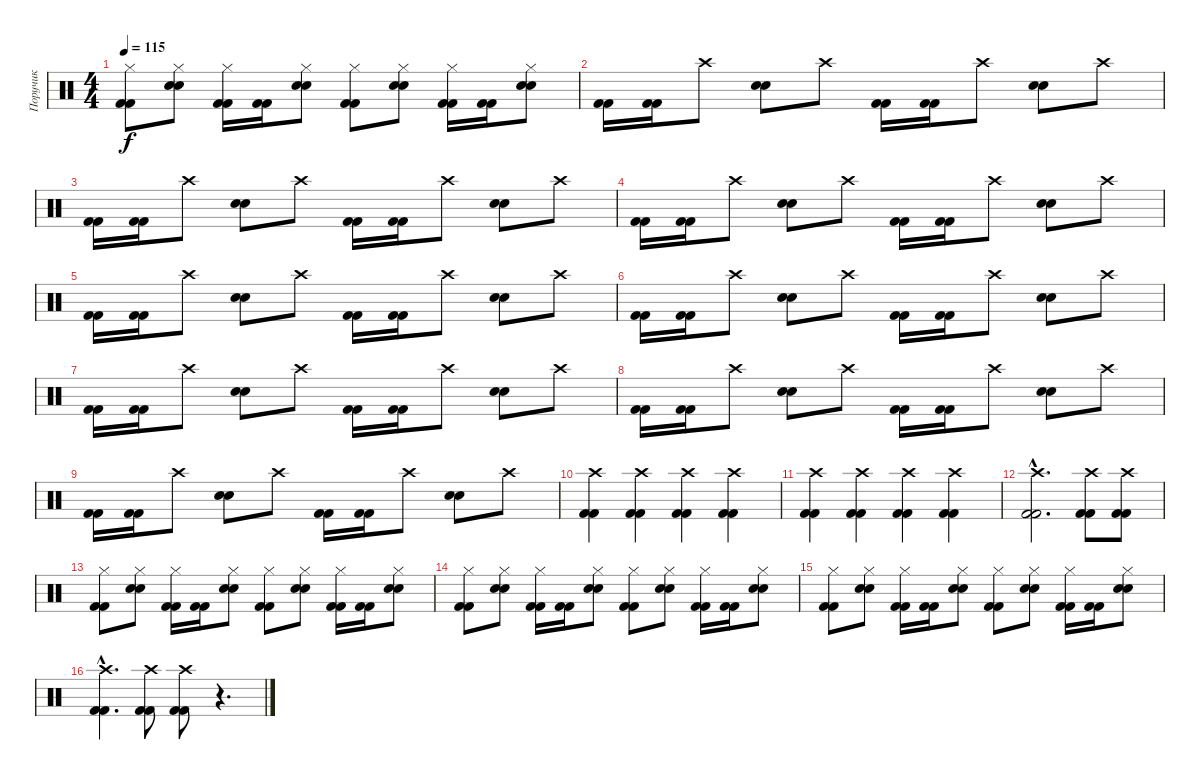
\track ("Поручик" "Поручик") {instrument percussion}
\staff {score}
\articulation defaults
\ts (4 4)
\tempo 115
\clef neutral
\ks c
("Kick (hit) 2" "Hi-Hat (closed)" "Kick (hit) 2").8{dy f} ("Snare (hit) 2" "Hi-Hat (closed)" "Snare (hit) 2").8 ("Kick (hit) 2" "Hi-Hat (closed)" "Kick (hit) 2").16 ("Kick (hit) 2" "Kick (hit) 2").16 ("Snare (hit) 2" "Hi-Hat (closed)" "Snare (hit) 2").8 ("Kick (hit) 2" "Hi-Hat (closed)" "Kick (hit) 2").8 ("Snare (hit) 2" "Hi-Hat (closed)" "Snare (hit) 2").8 ("Kick (hit) 2" "Hi-Hat (closed)" "Kick (hit) 2").16 ("Kick (hit) 2" "Kick (hit) 2").16 ("Snare (hit) 2" "Hi-Hat (closed)" "Snare (hit) 2").8 |
("Kick (hit) 2" "Kick (hit) 2").16 ("Kick (hit) 2" "Kick (hit) 2").16 "Crash high (hit)".8 ("Snare (hit) 2" "Snare (hit) 2").8 "Crash high (hit)".8 ("Kick (hit) 2" "Kick (hit) 2").16 ("Kick (hit) 2" "Kick (hit) 2").16 "Crash high (hit)".8 ("Snare (hit) 2" "Snare (hit) 2").8 "Crash high (hit)".8 |
("Kick (hit) 2" "Kick (hit) 2").16 ("Kick (hit) 2" "Kick (hit) 2").16 "Crash high (hit)".8 ("Snare (hit) 2" "Snare (hit) 2").8 "Crash high (hit)".8 ("Kick (hit) 2" "Kick (hit) 2").16 ("Kick (hit) 2" "Kick (hit) 2").16 "Crash high (hit)".8 ("Snare (hit) 2" "Snare (hit) 2").8 "Crash high (hit)".8 |
("Kick (hit) 2" "Kick (hit) 2").16 ("Kick (hit) 2" "Kick (hit) 2").16 "Crash high (hit)".8 ("Snare (hit) 2" "Snare (hit) 2").8 "Crash high (hit)".8 ("Kick (hit) 2" "Kick (hit) 2").16 ("Kick (hit) 2" "Kick (hit) 2").16 "Crash high (hit)".8 ("Snare (hit) 2" "Snare (hit) 2").8 "Crash high (hit)".8 |
("Kick (hit) 2" "Kick (hit) 2").16 ("Kick (hit) 2" "Kick (hit) 2").16 "Crash high (hit)".8 ("Snare (hit) 2" "Snare (hit) 2").8 "Crash high (hit)".8 ("Kick (hit) 2" "Kick (hit) 2").16 ("Kick (hit) 2" "Kick (hit) 2").16 "Crash high (hit)".8 ("Snare (hit) 2" "Snare (hit) 2").8 "Crash high (hit)".8 |
("Kick (hit) 2" "Kick (hit) 2").16 ("Kick (hit) 2" "Kick (hit) 2").16 "Crash high (hit)".8 ("Snare (hit) 2" "Snare (hit) 2").8 "Crash high (hit)".8 ("Kick (hit) 2" "Kick (hit) 2").16 ("Kick (hit) 2" "Kick (hit) 2").16 "Crash high (hit)".8 ("Snare (hit) 2" "Snare (hit) 2").8 "Crash high (hit)".8 |
("Kick (hit) 2" "Kick (hit) 2").16 ("Kick (hit) 2" "Kick (hit) 2").16 "Crash high (hit)".8 ("Snare (hit) 2" "Snare (hit) 2").8 "Crash high (hit)".8 ("Kick (hit) 2" "Kick (hit) 2").16 ("Kick (hit) 2" "Kick (hit) 2").16 "Crash high (hit)".8 ("Snare (hit) 2" "Snare (hit) 2").8 "Crash high (hit)".8 |
("Kick (hit) 2" "Kick (hit) 2").16 ("Kick (hit) 2" "Kick (hit) 2").16 "Crash high (hit)".8 ("Snare (hit) 2" "Snare (hit) 2").8 "Crash high (hit)".8 ("Kick (hit) 2" "Kick (hit) 2").16 ("Kick (hit) 2" "Kick (hit) 2").16 "Crash high (hit)".8 ("Snare (hit) 2" "Snare (hit) 2").8 "Crash high (hit)".8 |
("Kick (hit) 2" "Kick (hit) 2").16 ("Kick (hit) 2" "Kick (hit) 2").16 "Crash high (hit)".8 ("Snare (hit) 2" "Snare (hit) 2").8 "Crash high (hit)".8 ("Kick (hit) 2" "Kick (hit) 2").16 ("Kick (hit) 2" "Kick (hit) 2").16 "Crash high (hit)".8 ("Snare (hit) 2" "Snare (hit) 2").8 "Crash high (hit)".8 |
("Kick (hit) 2" "Crash high (hit)" "Kick (hit) 2").4 ("Kick (hit) 2" "Crash high (hit)" "Kick (hit) 2").4 ("Kick (hit) 2" "Crash high (hit)" "Kick (hit) 2").4 ("Kick (hit) 2" "Crash high (hit)" "Kick (hit) 2").4 |
("Kick (hit) 2" "Kick (hit) 2" "Crash high (hit)").4 ("Kick (hit) 2" "Kick (hit) 2" "Crash high (hit)").4 ("Kick (hit) 2" "Kick (hit) 2" "Crash high (hit)").4 ("Kick (hit) 2" "Kick (hit) 2" "Crash high (hit)").4 |
("Kick (hit) 2"{hac} "Kick (hit) 2"{hac} "Crash high (hit)"{hac}).2{d} ("Kick (hit) 2" "Kick (hit) 2" "Crash high (hit)").8 ("Kick (hit) 2" "Kick (hit) 2" "Crash high (hit)").8 |
("Kick (hit) 2" "Hi-Hat (closed)" "Kick (hit) 2").8 ("Snare (hit) 2" "Hi-Hat (closed)" "Snare (hit) 2").8 ("Kick (hit) 2" "Hi-Hat (closed)" "Kick (hit) 2").16 ("Kick (hit) 2" "Kick (hit) 2").16 ("Snare (hit) 2" "Hi-Hat (closed)" "Snare (hit) 2").8 ("Kick (hit) 2" "Hi-Hat (closed)" "Kick (hit) 2").8 ("Snare (hit) 2" "Hi-Hat (closed)" "Snare (hit) 2").8 ("Kick (hit) 2" "Hi-Hat (closed)" "Kick (hit) 2").16 ("Kick (hit) 2" "Kick (hit) 2").16 ("Snare (hit) 2" "Hi-Hat (closed)" "Snare (hit) 2").8 |
("Kick (hit) 2" "Hi-Hat (closed)" "Kick (hit) 2").8 ("Snare (hit) 2" "Hi-Hat (closed)" "Snare (hit) 2").8 ("Kick (hit) 2" "Hi-Hat (closed)" "Kick (hit) 2").16 ("Kick (hit) 2" "Kick (hit) 2").16 ("Snare (hit) 2" "Hi-Hat (closed)" "Snare (hit) 2").8 ("Kick (hit) 2" "Hi-Hat (closed)" "Kick (hit) 2").8 ("Snare (hit) 2" "Hi-Hat (closed)" "Snare (hit) 2").8 ("Kick (hit) 2" "Hi-Hat (closed)" "Kick (hit) 2").16 ("Kick (hit) 2" "Kick (hit) 2").16 ("Snare (hit) 2" "Hi-Hat (closed)" "Snare (hit) 2").8 |
("Kick (hit) 2" "Hi-Hat (closed)" "Kick (hit) 2").8 ("Snare (hit) 2" "Hi-Hat (closed)" "Snare (hit) 2").8 ("Kick (hit) 2" "Hi-Hat (closed)" "Kick (hit) 2").16 ("Kick (hit) 2" "Kick (hit) 2").16 ("Snare (hit) 2" "Hi-Hat (closed)" "Snare (hit) 2").8 ("Kick (hit) 2" "Hi-Hat (closed)" "Kick (hit) 2").8 ("Snare (hit) 2" "Hi-Hat (closed)" "Snare (hit) 2").8 ("Kick (hit) 2" "Hi-Hat (closed)" "Kick (hit) 2").16 ("Kick (hit) 2" "Kick (hit) 2").16 ("Snare (hit) 2" "Hi-Hat (closed)" "Snare (hit) 2").8 |
("Kick (hit) 2"{hac} "Kick (hit) 2"{hac} "Crash high (hit)"{hac}).4{d} ("Kick (hit) 2" "Kick (hit) 2" "Crash high (hit)").8 ("Kick (hit) 2" "Kick (hit) 2" "Crash high (hit)").8 r.4{d}
